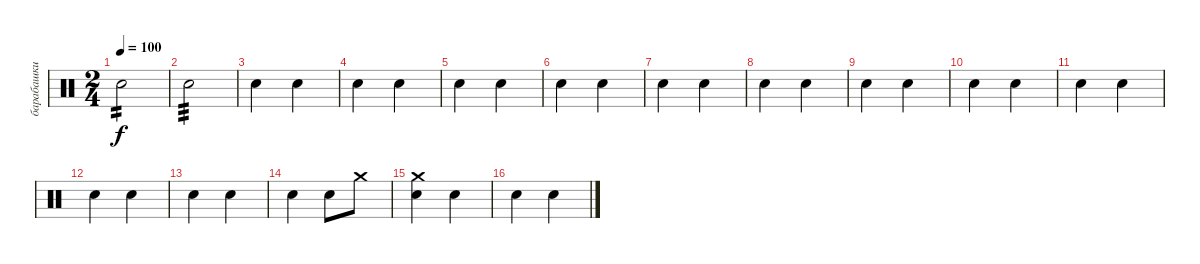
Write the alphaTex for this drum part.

\track ("барабашки middle" "барабашки ") {instrument percussion}
\staff {score}
\articulation defaults
\ts (2 4)
\tempo 100
\clef neutral
\ks c "Electric Snare (hit)".2{tp 2 dy f}
|
"Electric Snare (hit)".2{tp 3} |
"Electric Snare (hit)".4 "Snare (hit) 2".4 |
"Electric Snare (hit)".4 "Snare (hit) 2".4 |
"Electric Snare (hit)".4 "Snare (hit) 2".4 |
"Electric Snare (hit)".4 "Snare (hit) 2".4 |
"Electric Snare (hit)".4 "Snare (hit) 2".4 |
"Electric Snare (hit)".4 "Snare (hit) 2".4 |
"Electric Snare (hit)".4 "Snare (hit) 2".4 |
"Electric Snare (hit)".4 "Snare (hit) 2".4 |
"Electric Snare (hit)".4 "Snare (hit) 2".4 |
"Electric Snare (hit)".4 "Snare (hit) 2".4 |
"Electric Snare (hit)".4 "Snare (hit) 2".4 |
"Electric Snare (hit)".4 "Snare (hit) 2".8 "Crash medium (hit)".8 |
("Crash medium (hit)" "Electric Snare (hit)").4 "Snare (hit) 2".4 |
"Electric Snare (hit)".4 "Snare (hit) 2".4
